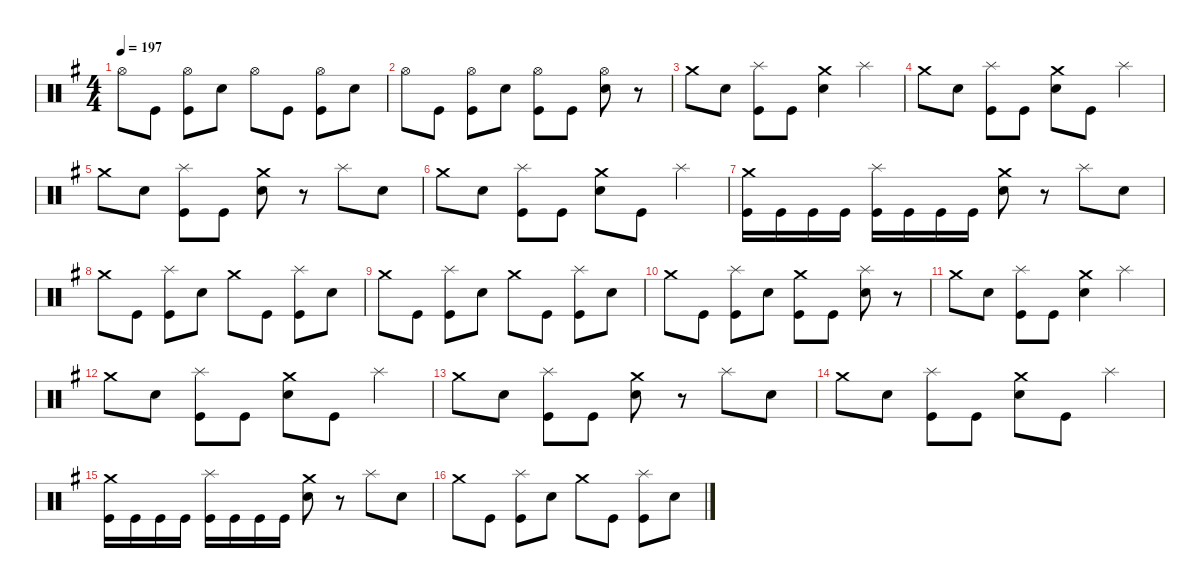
\defaultSystemsLayout 4
\hideDynamics
\bracketExtendMode nobrackets
\singleTrackTrackNamePolicy hidden
\multiTrackTrackNamePolicy hidden
\firstSystemTrackNameMode fullname
\firstSystemTrackNameOrientation horizontal
\otherSystemsTrackNameOrientation horizontal
\track ("Drums" "drm.") {defaultSystemsLayout 4 instrument percussion}
\staff {score}
\articulation defaults
\ts (4 4)
\tempo 197
\clef neutral
\ks eminor "Hi-Hat (open)"{acc forcenatural}.8{dy mf beam Down} "Kick (hit)"{acc forcenatural}.8{dy f beam Down}
("Hi-Hat (open)"{acc forcenatural} "Kick (hit)"{acc forcenatural}).8{dy mf beam Down} "Snare (hit) 2"{acc forcenatural}.8{dy f beam Down} "Hi-Hat (open)"{acc forcenatural}.8{dy mf beam Down} "Kick (hit)"{acc forcenatural}.8{dy f beam Down} ("Hi-Hat (open)"{acc forcenatural} "Kick (hit)"{acc forcenatural}).8{dy mf beam Down} "Snare (hit) 2"{acc forcenatural}.8{dy f beam Down} |
"Hi-Hat (open)"{acc forcenatural}.8{dy mf beam Down} "Kick (hit)"{acc forcenatural}.8{dy f beam Down} ("Hi-Hat (open)"{acc forcenatural} "Kick (hit)"{acc forcenatural}).8{dy mf beam Down} "Snare (hit) 2"{acc forcenatural}.8{dy f beam Down} ("Hi-Hat (open)"{acc forcenatural} "Kick (hit)"{acc forcenatural}).8{dy mf beam Down} "Kick (hit)"{acc forcenatural}.8{dy f beam Down} ("Hi-Hat (open)"{acc forcenatural} "Snare (hit) 2"{acc forcenatural}).8{dy mf beam Down} r.8{beam Down} |
"Crash medium (hit)"{acc forcenatural}.8{beam Down} "Snare (hit) 2"{acc forcenatural}.8{dy f beam Down} ("Splash (hit)"{acc forcenatural} "Kick (hit)"{acc forcenatural}).8{dy mf beam Down} "Kick (hit)"{acc forcenatural}.8{dy f beam Down} ("Crash medium (hit)"{acc forcenatural} "Snare (hit) 2"{acc forcenatural}).4{dy mf beam Down} "Splash (hit)"{acc forcenatural}.4{beam Down} |
"Crash medium (hit)"{acc forcenatural}.8{beam Down} "Snare (hit) 2"{acc forcenatural}.8{dy f beam Down} ("Splash (hit)"{acc forcenatural} "Kick (hit)"{acc forcenatural}).8{dy mf beam Down} "Kick (hit)"{acc forcenatural}.8{dy f beam Down} ("Crash medium (hit)"{acc forcenatural} "Snare (hit) 2"{acc forcenatural}).8{dy mf beam Down} "Kick (hit)"{acc forcenatural}.8{dy f beam Down} "Splash (hit)"{acc forcenatural}.4{dy mf beam Down} |
"Crash medium (hit)"{acc forcenatural}.8{beam Down} "Snare (hit) 2"{acc forcenatural}.8{dy f beam Down} ("Splash (hit)"{acc forcenatural} "Kick (hit)"{acc forcenatural}).8{dy mf beam Down} "Kick (hit)"{acc forcenatural}.8{dy f beam Down} ("Crash medium (hit)"{acc forcenatural} "Snare (hit) 2"{acc forcenatural}).8{dy mf beam Down} r.8{beam Down} "Splash (hit)"{acc forcenatural}.8{beam Down} "Snare (hit) 2"{acc forcenatural}.8{dy f beam Down} |
"Crash medium (hit)"{acc forcenatural}.8{dy mf beam Down} "Snare (hit) 2"{acc forcenatural}.8{dy f beam Down} ("Splash (hit)"{acc forcenatural} "Kick (hit)"{acc forcenatural}).8{dy mf beam Down} "Kick (hit)"{acc forcenatural}.8{dy f beam Down} ("Crash medium (hit)"{acc forcenatural} "Snare (hit) 2"{acc forcenatural}).8{dy mf beam Down} "Kick (hit)"{acc forcenatural}.8{dy f beam Down} "Splash (hit)"{acc forcenatural}.4{dy mf beam Down} |
("Crash medium (hit)"{acc forcenatural} "Kick (hit)"{acc forcenatural}).16{beam Down} "Kick (hit)"{acc forcenatural}.16{dy f beam Down} "Kick (hit)"{acc forcenatural}.16{beam Down} "Kick (hit)"{acc forcenatural}.16{beam Down} ("Splash (hit)"{acc forcenatural} "Kick (hit)"{acc forcenatural}).16{dy mf beam Down} "Kick (hit)"{acc forcenatural}.16{dy f beam Down} "Kick (hit)"{acc forcenatural}.16{beam Down} "Kick (hit)"{acc forcenatural}.16{beam Down} ("Crash medium (hit)"{acc forcenatural} "Snare (hit) 2"{acc forcenatural}).8{dy mf beam Down} r.8{beam Down} "Splash (hit)"{acc forcenatural}.8{beam Down} "Snare (hit) 2"{acc forcenatural}.8{dy f beam Down} |
"Crash medium (hit)"{acc forcenatural}.8{dy mf beam Down} "Kick (hit)"{acc forcenatural}.8{dy f beam Down} ("Splash (hit)"{acc forcenatural} "Kick (hit)"{acc forcenatural}).8{dy mf beam Down} "Snare (hit) 2"{acc forcenatural}.8{dy f beam Down} "Crash medium (hit)"{acc forcenatural}.8{dy mf beam Down} "Kick (hit)"{acc forcenatural}.8{dy f beam Down} ("Splash (hit)"{acc forcenatural} "Kick (hit)"{acc forcenatural}).8{dy mf beam Down} "Snare (hit) 2"{acc forcenatural}.8{dy f beam Down} |
"Crash medium (hit)"{acc forcenatural}.8{dy mf beam Down} "Kick (hit)"{acc forcenatural}.8{dy f beam Down} ("Splash (hit)"{acc forcenatural} "Kick (hit)"{acc forcenatural}).8{dy mf beam Down} "Snare (hit) 2"{acc forcenatural}.8{dy f beam Down} "Crash medium (hit)"{acc forcenatural}.8{dy mf beam Down} "Kick (hit)"{acc forcenatural}.8{dy f beam Down} ("Splash (hit)"{acc forcenatural} "Kick (hit)"{acc forcenatural}).8{dy mf beam Down} "Snare (hit) 2"{acc forcenatural}.8{dy f beam Down} |
"Crash medium (hit)"{acc forcenatural}.8{dy mf beam Down} "Kick (hit)"{acc forcenatural}.8{dy f beam Down} ("Splash (hit)"{acc forcenatural} "Kick (hit)"{acc forcenatural}).8{dy mf beam Down} "Snare (hit) 2"{acc forcenatural}.8{dy f beam Down} ("Crash medium (hit)"{acc forcenatural} "Kick (hit)"{acc forcenatural}).8{dy mf beam Down} "Kick (hit)"{acc forcenatural}.8{dy f beam Down} ("Splash (hit)"{acc forcenatural} "Snare (hit) 2"{acc forcenatural}).8{dy mf beam Down} r.8{beam Down} |
"Crash medium (hit)"{acc forcenatural}.8{beam Down} "Snare (hit) 2"{acc forcenatural}.8{dy f beam Down} ("Splash (hit)"{acc forcenatural} "Kick (hit)"{acc forcenatural}).8{dy mf beam Down} "Kick (hit)"{acc forcenatural}.8{dy f beam Down} ("Crash medium (hit)"{acc forcenatural} "Snare (hit) 2"{acc forcenatural}).4{dy mf beam Down} "Splash (hit)"{acc forcenatural}.4{beam Down} |
"Crash medium (hit)"{acc forcenatural}.8{beam Down} "Snare (hit) 2"{acc forcenatural}.8{dy f beam Down} ("Splash (hit)"{acc forcenatural} "Kick (hit)"{acc forcenatural}).8{dy mf beam Down} "Kick (hit)"{acc forcenatural}.8{dy f beam Down} ("Crash medium (hit)"{acc forcenatural} "Snare (hit) 2"{acc forcenatural}).8{dy mf beam Down} "Kick (hit)"{acc forcenatural}.8{dy f beam Down} "Splash (hit)"{acc forcenatural}.4{dy mf beam Down} |
"Crash medium (hit)"{acc forcenatural}.8{beam Down} "Snare (hit) 2"{acc forcenatural}.8{dy f beam Down} ("Splash (hit)"{acc forcenatural} "Kick (hit)"{acc forcenatural}).8{dy mf beam Down} "Kick (hit)"{acc forcenatural}.8{dy f beam Down} ("Crash medium (hit)"{acc forcenatural} "Snare (hit) 2"{acc forcenatural}).8{dy mf beam Down} r.8{beam Down} "Splash (hit)"{acc forcenatural}.8{beam Down} "Snare (hit) 2"{acc forcenatural}.8{dy f beam Down} |
"Crash medium (hit)"{acc forcenatural}.8{dy mf beam Down} "Snare (hit) 2"{acc forcenatural}.8{dy f beam Down} ("Splash (hit)"{acc forcenatural} "Kick (hit)"{acc forcenatural}).8{dy mf beam Down} "Kick (hit)"{acc forcenatural}.8{dy f beam Down} ("Crash medium (hit)"{acc forcenatural} "Snare (hit) 2"{acc forcenatural}).8{dy mf beam Down} "Kick (hit)"{acc forcenatural}.8{dy f beam Down} "Splash (hit)"{acc forcenatural}.4{dy mf beam Down} |
("Crash medium (hit)"{acc forcenatural} "Kick (hit)"{acc forcenatural}).16{beam Down} "Kick (hit)"{acc forcenatural}.16{dy f beam Down} "Kick (hit)"{acc forcenatural}.16{beam Down} "Kick (hit)"{acc forcenatural}.16{beam Down} ("Splash (hit)"{acc forcenatural} "Kick (hit)"{acc forcenatural}).16{dy mf beam Down} "Kick (hit)"{acc forcenatural}.16{dy f beam Down} "Kick (hit)"{acc forcenatural}.16{beam Down} "Kick (hit)"{acc forcenatural}.16{beam Down} ("Crash medium (hit)"{acc forcenatural} "Snare (hit) 2"{acc forcenatural}).8{dy mf beam Down} r.8{beam Down} "Splash (hit)"{acc forcenatural}.8{beam Down} "Snare (hit) 2"{acc forcenatural}.8{dy f beam Down} |
"Crash medium (hit)"{acc forcenatural}.8{dy mf beam Down} "Kick (hit)"{acc forcenatural}.8{dy f beam Down} ("Splash (hit)"{acc forcenatural} "Kick (hit)"{acc forcenatural}).8{dy mf beam Down} "Snare (hit) 2"{acc forcenatural}.8{dy f beam Down} "Crash medium (hit)"{acc forcenatural}.8{dy mf beam Down} "Kick (hit)"{acc forcenatural}.8{dy f beam Down} ("Splash (hit)"{acc forcenatural} "Kick (hit)"{acc forcenatural}).8{dy mf beam Down} "Snare (hit) 2"{acc forcenatural}.8{dy f beam Down}
